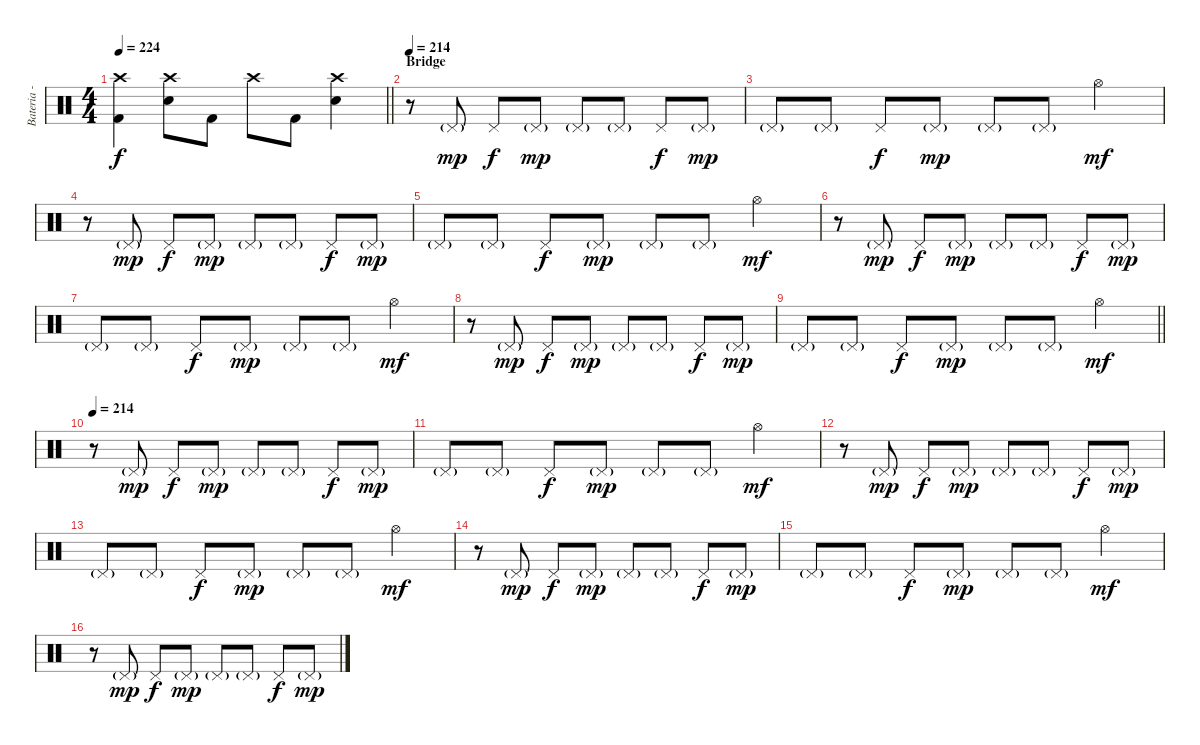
\track ("Bateria - Larzon" "Bateria - ") {instrument percussion}
\staff {score}
\articulation defaults
\ts (4 4)
\tempo 224
\clef neutral
\barLineRight lightlight
\ks c
("Kick (hit) 2" "Crash high (hit)").4{dy f} ("Electric Snare (hit)" "Crash high (hit)").8 "Kick (hit) 2".8 "Crash high (hit)".8 "Kick (hit) 2".8 ("Electric Snare (hit)" "Crash high (hit)").4 |
\section ("" "Bridge")
\tempo 214
r.8 "Pedal Hi-Hat (hit)"{g}.8{dy mp} "Pedal Hi-Hat (hit)".8{dy f} "Pedal Hi-Hat (hit)"{g}.8{dy mp} "Pedal Hi-Hat (hit)"{g}.8 "Pedal Hi-Hat (hit)"{g}.8 "Pedal Hi-Hat (hit)".8{dy f} "Pedal Hi-Hat (hit)"{g}.8{dy mp} |
"Pedal Hi-Hat (hit)"{g}.8 "Pedal Hi-Hat (hit)"{g}.8 "Pedal Hi-Hat (hit)".8{dy f} "Pedal Hi-Hat (hit)"{g}.8{dy mp} "Pedal Hi-Hat (hit)"{g}.8 "Pedal Hi-Hat (hit)"{g}.8 "Hi-Hat (open)".4{dy mf} |
r.8 "Pedal Hi-Hat (hit)"{g}.8{dy mp} "Pedal Hi-Hat (hit)".8{dy f} "Pedal Hi-Hat (hit)"{g}.8{dy mp} "Pedal Hi-Hat (hit)"{g}.8 "Pedal Hi-Hat (hit)"{g}.8 "Pedal Hi-Hat (hit)".8{dy f} "Pedal Hi-Hat (hit)"{g}.8{dy mp} |
"Pedal Hi-Hat (hit)"{g}.8 "Pedal Hi-Hat (hit)"{g}.8 "Pedal Hi-Hat (hit)".8{dy f} "Pedal Hi-Hat (hit)"{g}.8{dy mp} "Pedal Hi-Hat (hit)"{g}.8 "Pedal Hi-Hat (hit)"{g}.8 "Hi-Hat (open)".4{dy mf} |
r.8 "Pedal Hi-Hat (hit)"{g}.8{dy mp} "Pedal Hi-Hat (hit)".8{dy f} "Pedal Hi-Hat (hit)"{g}.8{dy mp} "Pedal Hi-Hat (hit)"{g}.8 "Pedal Hi-Hat (hit)"{g}.8 "Pedal Hi-Hat (hit)".8{dy f} "Pedal Hi-Hat (hit)"{g}.8{dy mp} |
"Pedal Hi-Hat (hit)"{g}.8 "Pedal Hi-Hat (hit)"{g}.8 "Pedal Hi-Hat (hit)".8{dy f} "Pedal Hi-Hat (hit)"{g}.8{dy mp} "Pedal Hi-Hat (hit)"{g}.8 "Pedal Hi-Hat (hit)"{g}.8 "Hi-Hat (open)".4{dy mf} |
r.8 "Pedal Hi-Hat (hit)"{g}.8{dy mp} "Pedal Hi-Hat (hit)".8{dy f} "Pedal Hi-Hat (hit)"{g}.8{dy mp} "Pedal Hi-Hat (hit)"{g}.8 "Pedal Hi-Hat (hit)"{g}.8 "Pedal Hi-Hat (hit)".8{dy f} "Pedal Hi-Hat (hit)"{g}.8{dy mp} |
\barLineRight lightlight "Pedal Hi-Hat (hit)"{g}.8 "Pedal Hi-Hat (hit)"{g}.8 "Pedal Hi-Hat (hit)".8{dy f} "Pedal Hi-Hat (hit)"{g}.8{dy mp} "Pedal Hi-Hat (hit)"{g}.8 "Pedal Hi-Hat (hit)"{g}.8 "Hi-Hat (open)".4{dy mf}
|
\tempo 214
r.8 "Pedal Hi-Hat (hit)"{g}.8{dy mp} "Pedal Hi-Hat (hit)".8{dy f} "Pedal Hi-Hat (hit)"{g}.8{dy mp} "Pedal Hi-Hat (hit)"{g}.8 "Pedal Hi-Hat (hit)"{g}.8 "Pedal Hi-Hat (hit)".8{dy f} "Pedal Hi-Hat (hit)"{g}.8{dy mp} |
"Pedal Hi-Hat (hit)"{g}.8 "Pedal Hi-Hat (hit)"{g}.8 "Pedal Hi-Hat (hit)".8{dy f} "Pedal Hi-Hat (hit)"{g}.8{dy mp} "Pedal Hi-Hat (hit)"{g}.8 "Pedal Hi-Hat (hit)"{g}.8 "Hi-Hat (open)".4{dy mf} |
r.8 "Pedal Hi-Hat (hit)"{g}.8{dy mp} "Pedal Hi-Hat (hit)".8{dy f} "Pedal Hi-Hat (hit)"{g}.8{dy mp} "Pedal Hi-Hat (hit)"{g}.8 "Pedal Hi-Hat (hit)"{g}.8 "Pedal Hi-Hat (hit)".8{dy f} "Pedal Hi-Hat (hit)"{g}.8{dy mp} |
"Pedal Hi-Hat (hit)"{g}.8 "Pedal Hi-Hat (hit)"{g}.8 "Pedal Hi-Hat (hit)".8{dy f} "Pedal Hi-Hat (hit)"{g}.8{dy mp} "Pedal Hi-Hat (hit)"{g}.8 "Pedal Hi-Hat (hit)"{g}.8 "Hi-Hat (open)".4{dy mf} |
r.8 "Pedal Hi-Hat (hit)"{g}.8{dy mp} "Pedal Hi-Hat (hit)".8{dy f} "Pedal Hi-Hat (hit)"{g}.8{dy mp} "Pedal Hi-Hat (hit)"{g}.8 "Pedal Hi-Hat (hit)"{g}.8 "Pedal Hi-Hat (hit)".8{dy f} "Pedal Hi-Hat (hit)"{g}.8{dy mp} |
"Pedal Hi-Hat (hit)"{g}.8 "Pedal Hi-Hat (hit)"{g}.8 "Pedal Hi-Hat (hit)".8{dy f} "Pedal Hi-Hat (hit)"{g}.8{dy mp} "Pedal Hi-Hat (hit)"{g}.8 "Pedal Hi-Hat (hit)"{g}.8 "Hi-Hat (open)".4{dy mf} |
r.8 "Pedal Hi-Hat (hit)"{g}.8{dy mp} "Pedal Hi-Hat (hit)".8{dy f} "Pedal Hi-Hat (hit)"{g}.8{dy mp} "Pedal Hi-Hat (hit)"{g}.8 "Pedal Hi-Hat (hit)"{g}.8 "Pedal Hi-Hat (hit)".8{dy f} "Pedal Hi-Hat (hit)"{g}.8{dy mp}
